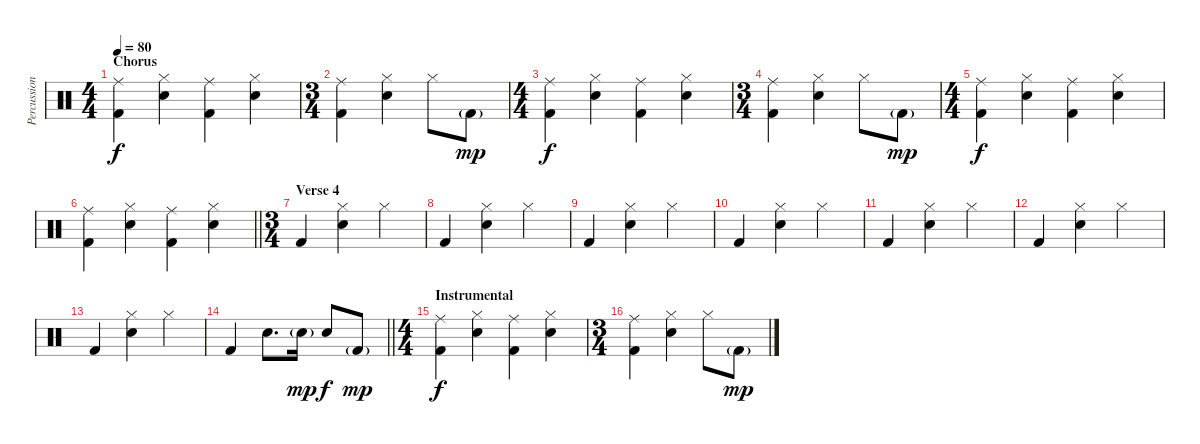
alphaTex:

\track ("Percussion" "Percussion") {instrument percussion}
\staff {score}
\articulation defaults
\ts (4 4)
\section ("" "Chorus")
\tempo 80
\clef neutral
\ks c
("Ride (middle)" "Kick (hit) 2").4{dy f} ("Snare (hit) 2" "Hi-Hat (closed)").4 ("Ride (middle)" "Kick (hit) 2").4 ("Snare (hit) 2" "Hi-Hat (closed)").4 |
\ts (3 4)
("Ride (middle)" "Kick (hit) 2").4 ("Snare (hit) 2" "Hi-Hat (closed)").4 "Hi-Hat (closed)".8 "Kick (hit) 2"{g}.8{dy mp} |
\ts (4 4)
("Ride (middle)" "Kick (hit) 2").4{dy f} ("Snare (hit) 2" "Hi-Hat (closed)").4 ("Ride (middle)" "Kick (hit) 2").4 ("Snare (hit) 2" "Hi-Hat (closed)").4 |
\ts (3 4)
("Ride (middle)" "Kick (hit) 2").4 ("Snare (hit) 2" "Hi-Hat (closed)").4 "Hi-Hat (closed)".8 "Kick (hit) 2"{g}.8{dy mp} |
\ts (4 4)
("Ride (middle)" "Kick (hit) 2").4{dy f} ("Snare (hit) 2" "Hi-Hat (closed)").4 ("Ride (middle)" "Kick (hit) 2").4 ("Snare (hit) 2" "Hi-Hat (closed)").4 |
\barLineRight lightlight
("Ride (middle)" "Kick (hit) 2").4 ("Snare (hit) 2" "Hi-Hat (closed)").4 ("Ride (middle)" "Kick (hit) 2").4 ("Snare (hit) 2" "Hi-Hat (closed)").4 |
\ts (3 4)
\section ("" "Verse 4")
"Kick (hit) 2".4 ("Snare (hit) 2" "Hi-Hat (closed)").4 "Hi-Hat (closed)".4 |
"Kick (hit) 2".4 ("Snare (hit) 2" "Hi-Hat (closed)").4 "Hi-Hat (closed)".4 |
"Kick (hit) 2".4 ("Snare (hit) 2" "Hi-Hat (closed)").4 "Hi-Hat (closed)".4 |
"Kick (hit) 2".4 ("Snare (hit) 2" "Hi-Hat (closed)").4 "Hi-Hat (closed)".4 |
"Kick (hit) 2".4 ("Snare (hit) 2" "Hi-Hat (closed)").4 "Hi-Hat (closed)".4 |
"Kick (hit) 2".4 ("Snare (hit) 2" "Hi-Hat (closed)").4 "Hi-Hat (closed)".4 |
"Kick (hit) 2".4 ("Snare (hit) 2" "Hi-Hat (closed)").4 "Hi-Hat (closed)".4 |
\barLineRight lightlight "Kick (hit) 2".4 "Snare (hit) 2".8{d} "Snare (hit) 2"{g}.16{dy mp} "Snare (hit) 2".8{dy f} "Kick (hit) 2"{g}.8{dy mp}
|
\ts (4 4)
\section ("" "Instrumental")
("Ride (middle)" "Kick (hit) 2").4{dy f} ("Snare (hit) 2" "Hi-Hat (closed)").4 ("Ride (middle)" "Kick (hit) 2").4 ("Snare (hit) 2" "Hi-Hat (closed)").4 |
\ts (3 4)
("Ride (middle)" "Kick (hit) 2").4 ("Snare (hit) 2" "Hi-Hat (closed)").4 "Hi-Hat (closed)".8 "Kick (hit) 2"{g}.8{dy mp}
